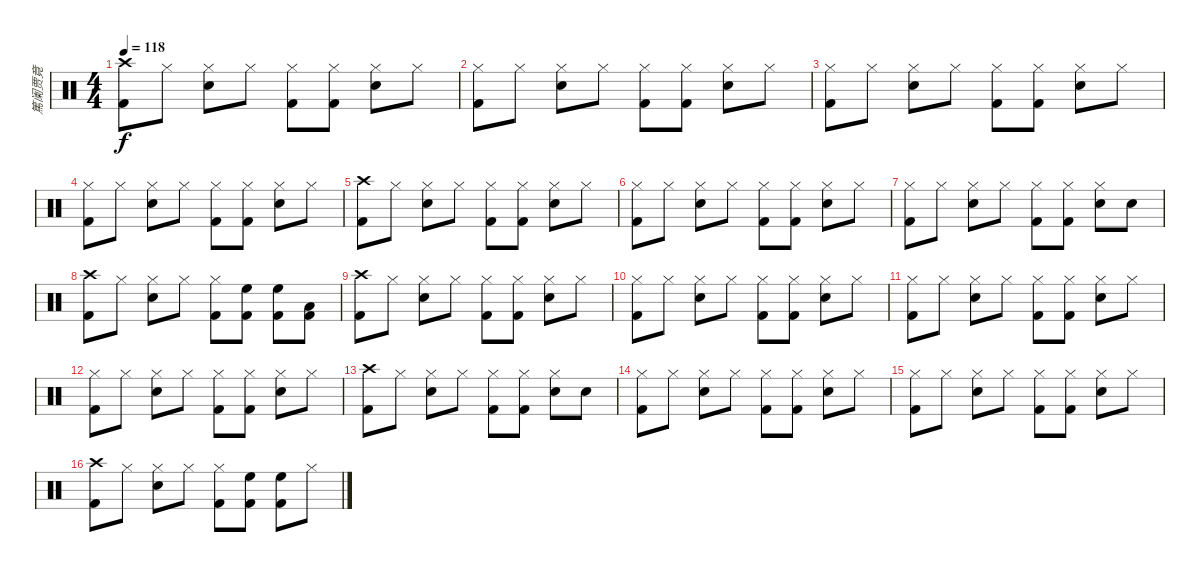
\track ("篤阑贾竟" "篤阑贾竟") {instrument percussion}
\staff {score}
\articulation defaults
\ts (4 4)
\tempo 118
\clef neutral
\ks c
("Crash high (hit)" "Kick (hit) 2").8{dy f} "Hi-Hat (closed)".8 ("Hi-Hat (closed)" "Snare (hit) 2").8 "Hi-Hat (closed)".8 ("Hi-Hat (closed)" "Kick (hit) 2").8 ("Hi-Hat (closed)" "Kick (hit) 2").8 ("Hi-Hat (closed)" "Snare (hit) 2").8 "Hi-Hat (closed)".8 |
("Hi-Hat (closed)" "Kick (hit) 2").8 "Hi-Hat (closed)".8 ("Hi-Hat (closed)" "Snare (hit) 2").8 "Hi-Hat (closed)".8 ("Hi-Hat (closed)" "Kick (hit) 2").8 ("Hi-Hat (closed)" "Kick (hit) 2").8 ("Hi-Hat (closed)" "Snare (hit) 2").8 "Hi-Hat (closed)".8 |
("Hi-Hat (closed)" "Kick (hit) 2").8 "Hi-Hat (closed)".8 ("Hi-Hat (closed)" "Snare (hit) 2").8 "Hi-Hat (closed)".8 ("Hi-Hat (closed)" "Kick (hit) 2").8 ("Hi-Hat (closed)" "Kick (hit) 2").8 ("Hi-Hat (closed)" "Snare (hit) 2").8 "Hi-Hat (closed)".8 |
("Hi-Hat (closed)" "Kick (hit) 2").8 "Hi-Hat (closed)".8 ("Hi-Hat (closed)" "Snare (hit) 2").8 "Hi-Hat (closed)".8 ("Hi-Hat (closed)" "Kick (hit) 2").8 ("Hi-Hat (closed)" "Kick (hit) 2").8 ("Hi-Hat (closed)" "Snare (hit) 2").8 "Hi-Hat (closed)".8 |
("Crash high (hit)" "Kick (hit) 2").8 "Hi-Hat (closed)".8 ("Hi-Hat (closed)" "Snare (hit) 2").8 "Hi-Hat (closed)".8 ("Hi-Hat (closed)" "Kick (hit) 2").8 ("Hi-Hat (closed)" "Kick (hit) 2").8 ("Hi-Hat (closed)" "Snare (hit) 2").8 "Hi-Hat (closed)".8 |
("Hi-Hat (closed)" "Kick (hit) 2").8 "Hi-Hat (closed)".8 ("Hi-Hat (closed)" "Snare (hit) 2").8 "Hi-Hat (closed)".8 ("Hi-Hat (closed)" "Kick (hit) 2").8 ("Hi-Hat (closed)" "Kick (hit) 2").8 ("Hi-Hat (closed)" "Snare (hit) 2").8 "Hi-Hat (closed)".8 |
("Hi-Hat (closed)" "Kick (hit) 2").8 "Hi-Hat (closed)".8 ("Hi-Hat (closed)" "Snare (hit) 2").8 "Hi-Hat (closed)".8 ("Hi-Hat (closed)" "Kick (hit) 2").8 ("Hi-Hat (closed)" "Kick (hit) 2").8 ("Hi-Hat (closed)" "Snare (hit) 2").8 "Snare (hit) 2".8 |
("Crash high (hit)" "Kick (hit) 2").8 "Hi-Hat (closed)".8 ("Hi-Hat (closed)" "Snare (hit) 2").8 "Hi-Hat (closed)".8 ("Hi-Hat (closed)" "Kick (hit) 2").8 ("High Floor Tom (hit)" "Kick (hit) 2").8 ("High Floor Tom (hit)" "Kick (hit) 2").8 ("Low Tom (hit)" "Kick (hit) 2").8 |
("Crash high (hit)" "Kick (hit) 2").8 "Hi-Hat (closed)".8 ("Hi-Hat (closed)" "Snare (hit) 2").8 "Hi-Hat (closed)".8 ("Hi-Hat (closed)" "Kick (hit) 2").8 ("Hi-Hat (closed)" "Kick (hit) 2").8 ("Hi-Hat (closed)" "Snare (hit) 2").8 "Hi-Hat (closed)".8 |
("Hi-Hat (closed)" "Kick (hit) 2").8 "Hi-Hat (closed)".8 ("Hi-Hat (closed)" "Snare (hit) 2").8 "Hi-Hat (closed)".8 ("Hi-Hat (closed)" "Kick (hit) 2").8 ("Hi-Hat (closed)" "Kick (hit) 2").8 ("Hi-Hat (closed)" "Snare (hit) 2").8 "Hi-Hat (closed)".8 |
("Hi-Hat (closed)" "Kick (hit) 2").8 "Hi-Hat (closed)".8 ("Hi-Hat (closed)" "Snare (hit) 2").8 "Hi-Hat (closed)".8 ("Hi-Hat (closed)" "Kick (hit) 2").8 ("Hi-Hat (closed)" "Kick (hit) 2").8 ("Hi-Hat (closed)" "Snare (hit) 2").8 "Hi-Hat (closed)".8 |
("Hi-Hat (closed)" "Kick (hit) 2").8 "Hi-Hat (closed)".8 ("Hi-Hat (closed)" "Snare (hit) 2").8 "Hi-Hat (closed)".8 ("Hi-Hat (closed)" "Kick (hit) 2").8 ("Hi-Hat (closed)" "Kick (hit) 2").8 ("Hi-Hat (closed)" "Snare (hit) 2").8 "Hi-Hat (closed)".8 |
("Crash high (hit)" "Kick (hit) 2").8 "Hi-Hat (closed)".8 ("Hi-Hat (closed)" "Snare (hit) 2").8 "Hi-Hat (closed)".8 ("Hi-Hat (closed)" "Kick (hit) 2").8 ("Hi-Hat (closed)" "Kick (hit) 2").8 ("Hi-Hat (closed)" "Snare (hit) 2").8 "Snare (hit) 2".8 |
("Hi-Hat (closed)" "Kick (hit) 2").8 "Hi-Hat (closed)".8 ("Hi-Hat (closed)" "Snare (hit) 2").8 "Hi-Hat (closed)".8 ("Hi-Hat (closed)" "Kick (hit) 2").8 ("Hi-Hat (closed)" "Kick (hit) 2").8 ("Hi-Hat (closed)" "Snare (hit) 2").8 "Hi-Hat (closed)".8 |
("Hi-Hat (closed)" "Kick (hit) 2").8 "Hi-Hat (closed)".8 ("Hi-Hat (closed)" "Snare (hit) 2").8 "Hi-Hat (closed)".8 ("Hi-Hat (closed)" "Kick (hit) 2").8 ("Hi-Hat (closed)" "Kick (hit) 2").8 ("Hi-Hat (closed)" "Snare (hit) 2").8 "Hi-Hat (closed)".8 |
("Crash high (hit)" "Kick (hit) 2").8 "Hi-Hat (closed)".8 ("Hi-Hat (closed)" "Snare (hit) 2").8 "Hi-Hat (closed)".8 ("Hi-Hat (closed)" "Kick (hit) 2").8 ("High Floor Tom (hit)" "Kick (hit) 2").8 ("High Floor Tom (hit)" "Kick (hit) 2").8 "Hi-Hat (closed)".8
